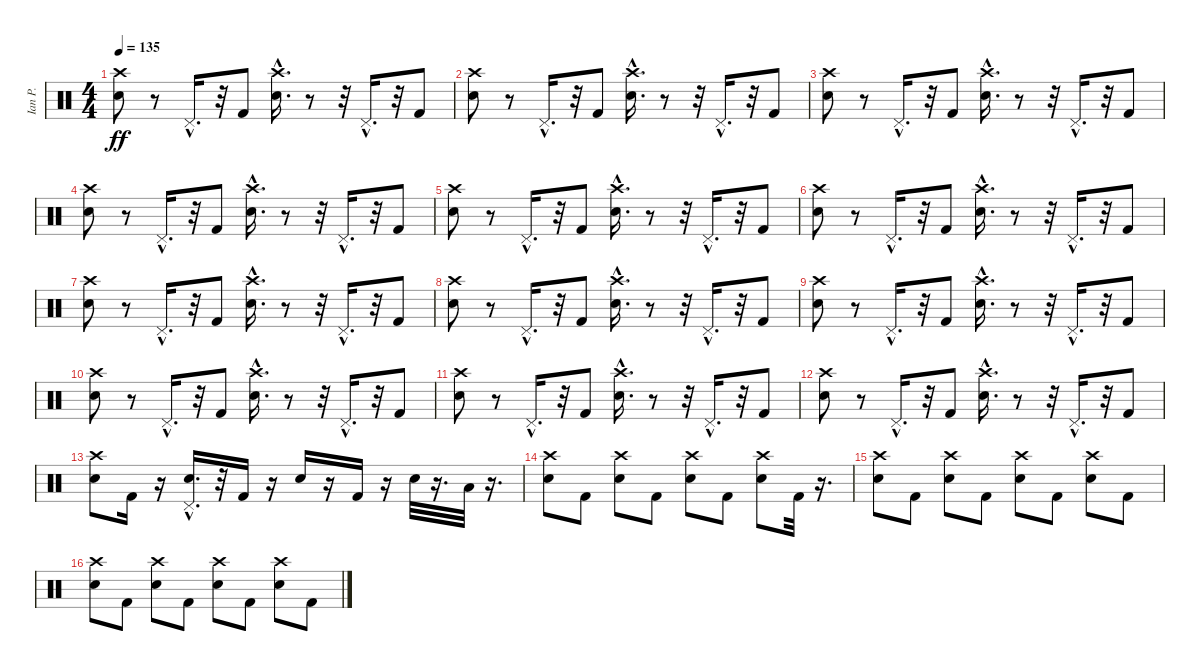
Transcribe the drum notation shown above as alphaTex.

\track ("Ian P." "Ian P.") {instrument percussion}
\staff {score}
\articulation defaults
\ts (4 4)
\tempo 135
\clef neutral
\ks c
("Crash high (hit)" "Snare (hit) 2").8{dy ff} r.8 "Pedal Hi-Hat (hit)"{hac}.16{d} r.32 "Kick (hit) 2".8 ("Snare (hit) 2"{hac} "Crash high (hit)"{hac}).16{d} r.8 r.32 "Pedal Hi-Hat (hit)"{hac}.16{d} r.32 "Kick (hit) 2".8 |
("Crash high (hit)" "Snare (hit) 2").8 r.8 "Pedal Hi-Hat (hit)"{hac}.16{d} r.32 "Kick (hit) 2".8 ("Snare (hit) 2"{hac} "Crash high (hit)"{hac}).16{d} r.8 r.32 "Pedal Hi-Hat (hit)"{hac}.16{d} r.32 "Kick (hit) 2".8 |
("Crash high (hit)" "Snare (hit) 2").8 r.8 "Pedal Hi-Hat (hit)"{hac}.16{d} r.32 "Kick (hit) 2".8 ("Snare (hit) 2"{hac} "Crash high (hit)"{hac}).16{d} r.8 r.32 "Pedal Hi-Hat (hit)"{hac}.16{d} r.32 "Kick (hit) 2".8 |
("Crash high (hit)" "Snare (hit) 2").8 r.8 "Pedal Hi-Hat (hit)"{hac}.16{d} r.32 "Kick (hit) 2".8 ("Snare (hit) 2"{hac} "Crash high (hit)"{hac}).16{d} r.8 r.32 "Pedal Hi-Hat (hit)"{hac}.16{d} r.32 "Kick (hit) 2".8 |
("Crash high (hit)" "Snare (hit) 2").8 r.8 "Pedal Hi-Hat (hit)"{hac}.16{d} r.32 "Kick (hit) 2".8 ("Snare (hit) 2"{hac} "Crash high (hit)"{hac}).16{d} r.8 r.32 "Pedal Hi-Hat (hit)"{hac}.16{d} r.32 "Kick (hit) 2".8 |
("Crash high (hit)" "Snare (hit) 2").8 r.8 "Pedal Hi-Hat (hit)"{hac}.16{d} r.32 "Kick (hit) 2".8 ("Snare (hit) 2"{hac} "Crash high (hit)"{hac}).16{d} r.8 r.32 "Pedal Hi-Hat (hit)"{hac}.16{d} r.32 "Kick (hit) 2".8 |
("Crash high (hit)" "Snare (hit) 2").8 r.8 "Pedal Hi-Hat (hit)"{hac}.16{d} r.32 "Kick (hit) 2".8 ("Snare (hit) 2"{hac} "Crash high (hit)"{hac}).16{d} r.8 r.32 "Pedal Hi-Hat (hit)"{hac}.16{d} r.32 "Kick (hit) 2".8 |
("Crash high (hit)" "Snare (hit) 2").8 r.8 "Pedal Hi-Hat (hit)"{hac}.16{d} r.32 "Kick (hit) 2".8 ("Snare (hit) 2"{hac} "Crash high (hit)"{hac}).16{d} r.8 r.32 "Pedal Hi-Hat (hit)"{hac}.16{d} r.32 "Kick (hit) 2".8 |
("Crash high (hit)" "Snare (hit) 2").8 r.8 "Pedal Hi-Hat (hit)"{hac}.16{d} r.32 "Kick (hit) 2".8 ("Snare (hit) 2"{hac} "Crash high (hit)"{hac}).16{d} r.8 r.32 "Pedal Hi-Hat (hit)"{hac}.16{d} r.32 "Kick (hit) 2".8 |
("Crash high (hit)" "Snare (hit) 2").8 r.8 "Pedal Hi-Hat (hit)"{hac}.16{d} r.32 "Kick (hit) 2".8 ("Snare (hit) 2"{hac} "Crash high (hit)"{hac}).16{d} r.8 r.32 "Pedal Hi-Hat (hit)"{hac}.16{d} r.32 "Kick (hit) 2".8 |
("Crash high (hit)" "Snare (hit) 2").8 r.8 "Pedal Hi-Hat (hit)"{hac}.16{d} r.32 "Kick (hit) 2".8 ("Snare (hit) 2"{hac} "Crash high (hit)"{hac}).16{d} r.8 r.32 "Pedal Hi-Hat (hit)"{hac}.16{d} r.32 "Kick (hit) 2".8 |
("Crash high (hit)" "Snare (hit) 2").8 r.8 "Pedal Hi-Hat (hit)"{hac}.16{d} r.32 "Kick (hit) 2".8 ("Snare (hit) 2"{hac} "Crash high (hit)"{hac}).16{d} r.8 r.32 "Pedal Hi-Hat (hit)"{hac}.16{d} r.32 "Kick (hit) 2".8 |
("Crash high (hit)" "Snare (hit) 2").8 "Kick (hit) 2".16 r.16 ("Snare (hit) 2" "Pedal Hi-Hat (hit)"{hac}).16{d} r.32 "Kick (hit) 2".16 r.16 "Snare (hit) 2".16 r.16 "Kick (hit) 2".16 r.16 "Snare (hit) 2".32 r.16{d} "Low Tom (hit)".32 r.16{d} |
("Crash high (hit)" "Snare (hit) 2").8 "Kick (hit) 2".8 ("Crash high (hit)" "Snare (hit) 2").8 "Kick (hit) 2".8 ("Crash high (hit)" "Snare (hit) 2").8 "Kick (hit) 2".8 ("Crash high (hit)" "Snare (hit) 2").8 "Kick (hit) 2".32 r.16{d} |
("Crash high (hit)" "Snare (hit) 2").8 "Kick (hit) 2".8 ("Crash high (hit)" "Snare (hit) 2").8 "Kick (hit) 2".8 ("Crash high (hit)" "Snare (hit) 2").8 "Kick (hit) 2".8 ("Crash high (hit)" "Snare (hit) 2").8 "Kick (hit) 2".8 |
("Crash high (hit)" "Snare (hit) 2").8 "Kick (hit) 2".8 ("Crash high (hit)" "Snare (hit) 2").8 "Kick (hit) 2".8 ("Crash high (hit)" "Snare (hit) 2").8 "Kick (hit) 2".8 ("Crash high (hit)" "Snare (hit) 2").8 "Kick (hit) 2".8
